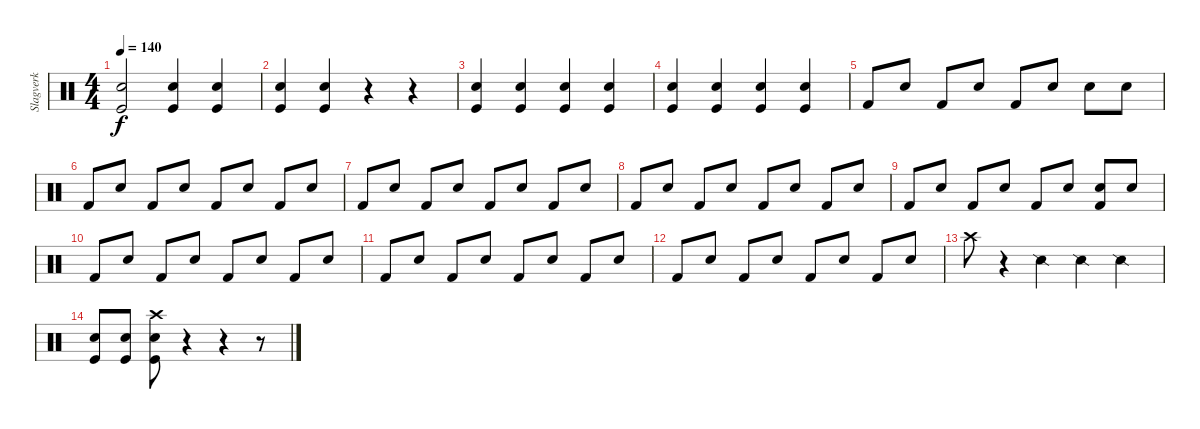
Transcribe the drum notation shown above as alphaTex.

\track ("Slagverk" "Slagverk") {instrument percussion}
\staff {score}
\articulation defaults
\ts (4 4)
\tempo 140
\clef neutral
\ks c
("Kick (hit)" "Snare (hit) 2").2{dy f} ("Kick (hit)" "Snare (hit) 2").4 ("Kick (hit)" "Snare (hit) 2").4 |
("Kick (hit)" "Snare (hit) 2").4 ("Kick (hit)" "Snare (hit) 2").4 r.4 r.4 |
("Kick (hit)" "Snare (hit) 2").4 ("Kick (hit)" "Snare (hit) 2").4 ("Kick (hit)" "Snare (hit) 2").4 ("Kick (hit)" "Snare (hit) 2").4 |
("Kick (hit)" "Snare (hit) 2").4 ("Kick (hit)" "Snare (hit) 2").4 ("Kick (hit)" "Snare (hit) 2").4 ("Kick (hit)" "Snare (hit) 2").4 |
"Kick (hit) 2".8 "Snare (hit) 2".8 "Kick (hit) 2".8 "Snare (hit) 2".8 "Kick (hit) 2".8 "Snare (hit) 2".8 "Snare (hit) 2".8 "Snare (hit) 2".8 |
"Kick (hit) 2".8 "Snare (hit) 2".8 "Kick (hit) 2".8 "Snare (hit) 2".8 "Kick (hit) 2".8 "Snare (hit) 2".8 "Kick (hit) 2".8 "Snare (hit) 2".8 |
"Kick (hit) 2".8 "Snare (hit) 2".8 "Kick (hit) 2".8 "Snare (hit) 2".8 "Kick (hit) 2".8 "Snare (hit) 2".8 "Kick (hit) 2".8 "Snare (hit) 2".8 |
"Kick (hit) 2".8 "Snare (hit) 2".8 "Kick (hit) 2".8 "Snare (hit) 2".8 "Kick (hit) 2".8 "Snare (hit) 2".8 "Kick (hit) 2".8 "Snare (hit) 2".8 |
"Kick (hit) 2".8 "Snare (hit) 2".8 "Kick (hit) 2".8 "Snare (hit) 2".8 "Kick (hit) 2".8 "Snare (hit) 2".8 ("Kick (hit) 2" "Snare (hit) 2").8 "Snare (hit) 2".8 |
"Kick (hit) 2".8 "Snare (hit) 2".8 "Kick (hit) 2".8 "Snare (hit) 2".8 "Kick (hit) 2".8 "Snare (hit) 2".8 "Kick (hit) 2".8 "Snare (hit) 2".8 |
"Kick (hit) 2".8 "Snare (hit) 2".8 "Kick (hit) 2".8 "Snare (hit) 2".8 "Kick (hit) 2".8 "Snare (hit) 2".8 "Kick (hit) 2".8 "Snare (hit) 2".8 |
"Kick (hit) 2".8 "Snare (hit) 2".8 "Kick (hit) 2".8 "Snare (hit) 2".8 "Kick (hit) 2".8 "Snare (hit) 2".8 "Kick (hit) 2".8 "Snare (hit) 2".8 |
"Crash high (hit)".8 r.4 "Snare (side stick) 2".4 "Snare (side stick) 2".4 "Snare (side stick) 2".4 |
("Kick (hit)" "Snare (hit) 2").8 ("Kick (hit)" "Snare (hit) 2").8 ("Kick (hit)" "Snare (hit) 2" "Crash high (hit)").8 r.4 r.4 r.8
